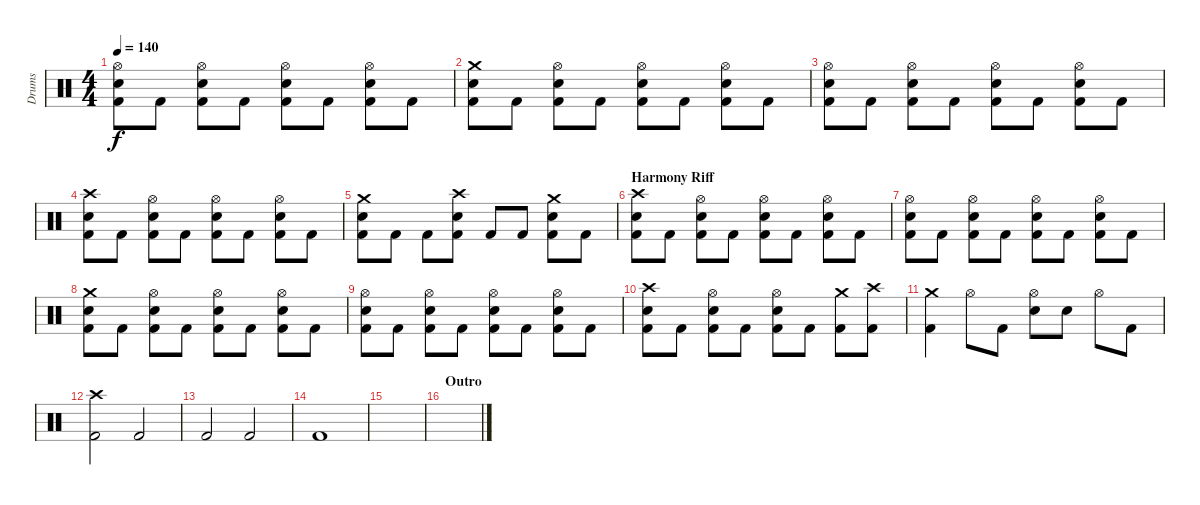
\track ("Drums" "Drums") {instrument percussion}
\staff {score}
\articulation defaults
\ts (4 4)
\tempo 140
\clef neutral
\ks c
("Hi-Hat (open)" "Electric Snare (hit)" "Kick (hit) 2").8{dy f} "Kick (hit) 2".8 ("Hi-Hat (open)" "Electric Snare (hit)" "Kick (hit) 2").8 "Kick (hit) 2".8 ("Hi-Hat (open)" "Electric Snare (hit)" "Kick (hit) 2").8 "Kick (hit) 2".8 ("Hi-Hat (open)" "Electric Snare (hit)" "Kick (hit) 2").8 "Kick (hit) 2".8 |
("Crash medium (hit)" "Electric Snare (hit)" "Kick (hit) 2").8 "Kick (hit) 2".8 ("Hi-Hat (open)" "Electric Snare (hit)" "Kick (hit) 2").8 "Kick (hit) 2".8 ("Hi-Hat (open)" "Electric Snare (hit)" "Kick (hit) 2").8 "Kick (hit) 2".8 ("Hi-Hat (open)" "Electric Snare (hit)" "Kick (hit) 2").8 "Kick (hit) 2".8 |
("Hi-Hat (open)" "Electric Snare (hit)" "Kick (hit) 2").8 "Kick (hit) 2".8 ("Hi-Hat (open)" "Electric Snare (hit)" "Kick (hit) 2").8 "Kick (hit) 2".8 ("Hi-Hat (open)" "Electric Snare (hit)" "Kick (hit) 2").8 "Kick (hit) 2".8 ("Hi-Hat (open)" "Electric Snare (hit)" "Kick (hit) 2").8 "Kick (hit) 2".8 |
("Crash high (hit)" "Electric Snare (hit)" "Kick (hit) 2").8 "Kick (hit) 2".8 ("Hi-Hat (open)" "Electric Snare (hit)" "Kick (hit) 2").8 "Kick (hit) 2".8 ("Hi-Hat (open)" "Electric Snare (hit)" "Kick (hit) 2").8 "Kick (hit) 2".8 ("Hi-Hat (open)" "Electric Snare (hit)" "Kick (hit) 2").8 "Kick (hit) 2".8 |
("Crash medium (hit)" "Electric Snare (hit)" "Kick (hit) 2").8 "Kick (hit) 2".8 "Kick (hit) 2".8 ("Crash high (hit)" "Electric Snare (hit)" "Kick (hit) 2").8 "Kick (hit) 2".8 "Kick (hit) 2".8 ("Crash medium (hit)" "Electric Snare (hit)" "Kick (hit) 2").8 "Kick (hit) 2".8 |
\section ("" "Harmony Riff")
("Crash high (hit)" "Electric Snare (hit)" "Kick (hit) 2").8 "Kick (hit) 2".8 ("Hi-Hat (open)" "Electric Snare (hit)" "Kick (hit) 2").8 "Kick (hit) 2".8 ("Hi-Hat (open)" "Electric Snare (hit)" "Kick (hit) 2").8 "Kick (hit) 2".8 ("Hi-Hat (open)" "Electric Snare (hit)" "Kick (hit) 2").8 "Kick (hit) 2".8 |
("Hi-Hat (open)" "Electric Snare (hit)" "Kick (hit) 2").8 "Kick (hit) 2".8 ("Hi-Hat (open)" "Electric Snare (hit)" "Kick (hit) 2").8 "Kick (hit) 2".8 ("Hi-Hat (open)" "Electric Snare (hit)" "Kick (hit) 2").8 "Kick (hit) 2".8 ("Hi-Hat (open)" "Electric Snare (hit)" "Kick (hit) 2").8 "Kick (hit) 2".8 |
("Crash medium (hit)" "Electric Snare (hit)" "Kick (hit) 2").8 "Kick (hit) 2".8 ("Hi-Hat (open)" "Electric Snare (hit)" "Kick (hit) 2").8 "Kick (hit) 2".8 ("Hi-Hat (open)" "Electric Snare (hit)" "Kick (hit) 2").8 "Kick (hit) 2".8 ("Hi-Hat (open)" "Electric Snare (hit)" "Kick (hit) 2").8 "Kick (hit) 2".8 |
("Hi-Hat (open)" "Electric Snare (hit)" "Kick (hit) 2").8 "Kick (hit) 2".8 ("Hi-Hat (open)" "Electric Snare (hit)" "Kick (hit) 2").8 "Kick (hit) 2".8 ("Hi-Hat (open)" "Electric Snare (hit)" "Kick (hit) 2").8 "Kick (hit) 2".8 ("Hi-Hat (open)" "Electric Snare (hit)" "Kick (hit) 2").8 "Kick (hit) 2".8 |
("Crash high (hit)" "Electric Snare (hit)" "Kick (hit) 2").8 "Kick (hit) 2".8 ("Hi-Hat (open)" "Electric Snare (hit)" "Kick (hit) 2").8 "Kick (hit) 2".8 ("Hi-Hat (open)" "Electric Snare (hit)" "Kick (hit) 2").8 "Kick (hit) 2".8 ("Crash medium (hit)" "Kick (hit) 2").8 ("Crash high (hit)" "Kick (hit) 2").8 |
("Crash medium (hit)" "Kick (hit) 2").4 "Hi-Hat (open)".8 "Kick (hit) 2".8 ("Hi-Hat (open)" "Electric Snare (hit)").8 "Electric Snare (hit)".8 "Hi-Hat (open)".8 "Kick (hit) 2".8 |
("Crash high (hit)" "Kick (hit) 2").2 "Kick (hit) 2".2 |
"Kick (hit) 2".2 "Kick (hit) 2".2 |
"Kick (hit) 2".1 |
|
\section ("" "Outro")
